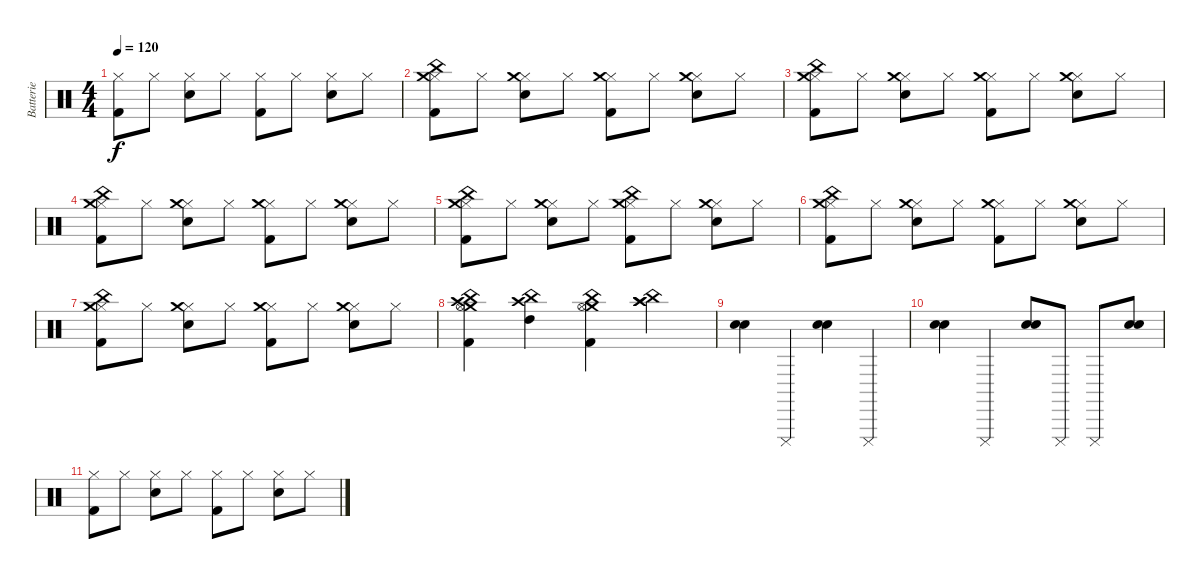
\track ("Batterie" "Batterie") {instrument percussion}
\staff {score}
\articulation defaults
\ts (4 4)
\tempo 120
\clef neutral
\ks c
("Hi-Hat (closed)" "Kick (hit) 2").8{dy f} "Hi-Hat (closed)".8 ("Hi-Hat (closed)" "Electric Snare (hit)").8 "Hi-Hat (closed)".8 ("Hi-Hat (closed)" "Kick (hit) 2").8 "Hi-Hat (closed)".8 ("Hi-Hat (closed)" "Electric Snare (hit)").8 "Hi-Hat (closed)".8 |
("China (hit)" "Hi-Hat (closed)" "Crash medium (hit)" "Kick (hit) 2").8 "Hi-Hat (closed)".8 ("Hi-Hat (closed)" "Crash medium (hit)" "Electric Snare (hit)").8 "Hi-Hat (closed)".8 ("Hi-Hat (closed)" "Crash medium (hit)" "Kick (hit) 2").8 "Hi-Hat (closed)".8 ("Hi-Hat (closed)" "Crash medium (hit)" "Electric Snare (hit)").8 "Hi-Hat (closed)".8 |
("China (hit)" "Hi-Hat (closed)" "Crash medium (hit)" "Kick (hit) 2").8 "Hi-Hat (closed)".8 ("Hi-Hat (closed)" "Crash medium (hit)" "Electric Snare (hit)").8 "Hi-Hat (closed)".8 ("Hi-Hat (closed)" "Crash medium (hit)" "Kick (hit) 2").8 "Hi-Hat (closed)".8 ("Hi-Hat (closed)" "Crash medium (hit)" "Electric Snare (hit)").8 "Hi-Hat (closed)".8 |
("China (hit)" "Hi-Hat (closed)" "Crash medium (hit)" "Kick (hit) 2").8 "Hi-Hat (closed)".8 ("Hi-Hat (closed)" "Crash medium (hit)" "Electric Snare (hit)").8 "Hi-Hat (closed)".8 ("Hi-Hat (closed)" "Crash medium (hit)" "Kick (hit) 2").8 "Hi-Hat (closed)".8 ("Hi-Hat (closed)" "Crash medium (hit)" "Electric Snare (hit)").8 "Hi-Hat (closed)".8 |
("China (hit)" "Hi-Hat (closed)" "Crash medium (hit)" "Kick (hit) 2").8 "Hi-Hat (closed)".8 ("Hi-Hat (closed)" "Crash medium (hit)" "Electric Snare (hit)").8 "Hi-Hat (closed)".8 ("China (hit)" "Hi-Hat (closed)" "Crash medium (hit)" "Kick (hit) 2").8 "Hi-Hat (closed)".8 ("Hi-Hat (closed)" "Crash medium (hit)" "Electric Snare (hit)").8 "Hi-Hat (closed)".8 |
("China (hit)" "Hi-Hat (closed)" "Crash medium (hit)" "Kick (hit) 2").8 "Hi-Hat (closed)".8 ("Hi-Hat (closed)" "Crash medium (hit)" "Electric Snare (hit)").8 "Hi-Hat (closed)".8 ("Hi-Hat (closed)" "Crash medium (hit)" "Kick (hit) 2").8 "Hi-Hat (closed)".8 ("Hi-Hat (closed)" "Crash medium (hit)" "Electric Snare (hit)").8 "Hi-Hat (closed)".8 |
("China (hit)" "Hi-Hat (closed)" "Crash medium (hit)" "Kick (hit) 2").8 "Hi-Hat (closed)".8 ("Hi-Hat (closed)" "Crash medium (hit)" "Electric Snare (hit)").8 "Hi-Hat (closed)".8 ("Hi-Hat (closed)" "Crash medium (hit)" "Kick (hit) 2").8 "Hi-Hat (closed)".8 ("Hi-Hat (closed)" "Crash medium (hit)" "Electric Snare (hit)").8 "Hi-Hat (closed)".8 |
("China (hit)" "Crash medium (hit)" "Hi-Hat (open)" "Crash high (hit)" "Kick (hit) 2").4 ("China (hit)" "Crash high (hit)" "High Tom (hit)").4 ("China (hit)" "Crash medium (hit)" "Hi-Hat (open)" "Kick (hit) 2").4 ("China (hit)" "Crash high (hit)" "Crash high (hit)").4 |
("Snare (hit) 2" "Electric Snare (hit)").4 "Cuica (mute)".4 ("Snare (hit) 2" "Electric Snare (hit)").4 "Cuica (mute)".4 |
("Electric Snare (hit)" "Snare (hit) 2").4 "Cuica (mute)".4 ("Electric Snare (hit)" "Snare (hit) 2").8 "Cuica (mute)".8 "Cuica (mute)".8 ("Snare (hit) 2" "Electric Snare (hit)").8 |
("Hi-Hat (closed)" "Kick (hit) 2").8 "Hi-Hat (closed)".8 ("Hi-Hat (closed)" "Electric Snare (hit)").8 "Hi-Hat (closed)".8 ("Hi-Hat (closed)" "Kick (hit) 2").8 "Hi-Hat (closed)".8 ("Hi-Hat (closed)" "Electric Snare (hit)").8 "Hi-Hat (closed)".8
